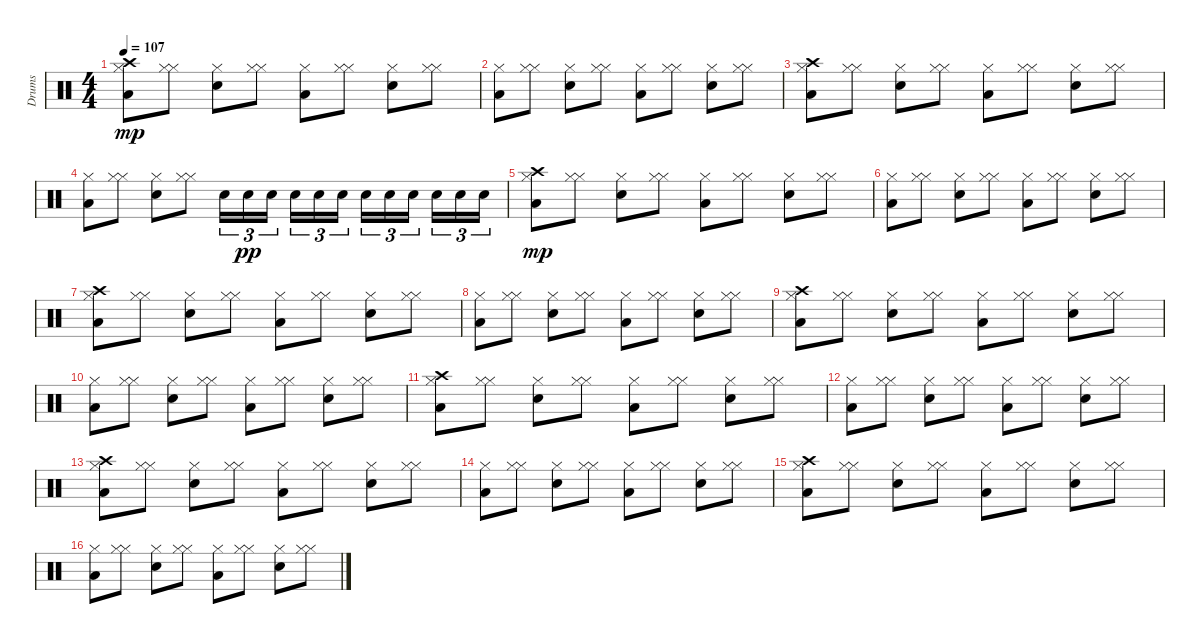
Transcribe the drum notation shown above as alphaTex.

\track ("Drums" "Drums") {instrument percussion}
\staff {score}
\articulation defaults
\ts (4 4)
\tempo 107
\clef neutral
\ks c
("Hi-Hat (closed)" "Crash high (hit)" "Low Tom (hit)").8{dy mp} ("Hi-Hat (closed)" "Hi-Hat (closed)").8 ("Hi-Hat (closed)" "Snare (hit) 2").8 ("Hi-Hat (closed)" "Hi-Hat (closed)").8 ("Hi-Hat (closed)" "Low Tom (hit)").8 ("Hi-Hat (closed)" "Hi-Hat (closed)").8 ("Hi-Hat (closed)" "Snare (hit) 2").8 ("Hi-Hat (closed)" "Hi-Hat (closed)").8 |
("Hi-Hat (closed)" "Low Tom (hit)").8 ("Hi-Hat (closed)" "Hi-Hat (closed)").8 ("Hi-Hat (closed)" "Snare (hit) 2").8 ("Hi-Hat (closed)" "Hi-Hat (closed)").8 ("Hi-Hat (closed)" "Low Tom (hit)").8 ("Hi-Hat (closed)" "Hi-Hat (closed)").8 ("Hi-Hat (closed)" "Snare (hit) 2").8 ("Hi-Hat (closed)" "Hi-Hat (closed)").8 |
("Hi-Hat (closed)" "Crash high (hit)" "Low Tom (hit)").8 ("Hi-Hat (closed)" "Hi-Hat (closed)").8 ("Hi-Hat (closed)" "Snare (hit) 2").8 ("Hi-Hat (closed)" "Hi-Hat (closed)").8 ("Hi-Hat (closed)" "Low Tom (hit)").8 ("Hi-Hat (closed)" "Hi-Hat (closed)").8 ("Hi-Hat (closed)" "Snare (hit) 2").8 ("Hi-Hat (closed)" "Hi-Hat (closed)").8 |
("Hi-Hat (closed)" "Low Tom (hit)").8 ("Hi-Hat (closed)" "Hi-Hat (closed)").8 ("Hi-Hat (closed)" "Snare (hit) 2").8 ("Hi-Hat (closed)" "Hi-Hat (closed)").8 "Snare (hit) 2".16{tu (3 2)} "Snare (hit) 2".16{tu (3 2) dy pp} "Snare (hit) 2".16{tu (3 2) beam splitsecondary} "Snare (hit) 2".16{tu (3 2)} "Snare (hit) 2".16{tu (3 2)} "Snare (hit) 2".16{tu (3 2)} "Snare (hit) 2".16{tu (3 2)} "Snare (hit) 2".16{tu (3 2)} "Snare (hit) 2".16{tu (3 2) beam splitsecondary} "Snare (hit) 2".16{tu (3 2)} "Snare (hit) 2".16{tu (3 2)} "Snare (hit) 2".16{tu (3 2)} |
("Hi-Hat (closed)" "Crash high (hit)" "Low Tom (hit)").8{dy mp} ("Hi-Hat (closed)" "Hi-Hat (closed)").8 ("Hi-Hat (closed)" "Snare (hit) 2").8 ("Hi-Hat (closed)" "Hi-Hat (closed)").8 ("Hi-Hat (closed)" "Low Tom (hit)").8 ("Hi-Hat (closed)" "Hi-Hat (closed)").8 ("Hi-Hat (closed)" "Snare (hit) 2").8 ("Hi-Hat (closed)" "Hi-Hat (closed)").8 |
("Hi-Hat (closed)" "Low Tom (hit)").8 ("Hi-Hat (closed)" "Hi-Hat (closed)").8 ("Hi-Hat (closed)" "Snare (hit) 2").8 ("Hi-Hat (closed)" "Hi-Hat (closed)").8 ("Hi-Hat (closed)" "Low Tom (hit)").8 ("Hi-Hat (closed)" "Hi-Hat (closed)").8 ("Hi-Hat (closed)" "Snare (hit) 2").8 ("Hi-Hat (closed)" "Hi-Hat (closed)").8 |
("Hi-Hat (closed)" "Crash high (hit)" "Low Tom (hit)").8 ("Hi-Hat (closed)" "Hi-Hat (closed)").8 ("Hi-Hat (closed)" "Snare (hit) 2").8 ("Hi-Hat (closed)" "Hi-Hat (closed)").8 ("Hi-Hat (closed)" "Low Tom (hit)").8 ("Hi-Hat (closed)" "Hi-Hat (closed)").8 ("Hi-Hat (closed)" "Snare (hit) 2").8 ("Hi-Hat (closed)" "Hi-Hat (closed)").8 |
("Hi-Hat (closed)" "Low Tom (hit)").8 ("Hi-Hat (closed)" "Hi-Hat (closed)").8 ("Hi-Hat (closed)" "Snare (hit) 2").8 ("Hi-Hat (closed)" "Hi-Hat (closed)").8 ("Hi-Hat (closed)" "Low Tom (hit)").8 ("Hi-Hat (closed)" "Hi-Hat (closed)").8 ("Hi-Hat (closed)" "Snare (hit) 2").8 ("Hi-Hat (closed)" "Hi-Hat (closed)").8 |
("Hi-Hat (closed)" "Crash high (hit)" "Low Tom (hit)").8 ("Hi-Hat (closed)" "Hi-Hat (closed)").8 ("Hi-Hat (closed)" "Snare (hit) 2").8 ("Hi-Hat (closed)" "Hi-Hat (closed)").8 ("Hi-Hat (closed)" "Low Tom (hit)").8 ("Hi-Hat (closed)" "Hi-Hat (closed)").8 ("Hi-Hat (closed)" "Snare (hit) 2").8 ("Hi-Hat (closed)" "Hi-Hat (closed)").8 |
("Hi-Hat (closed)" "Low Tom (hit)").8 ("Hi-Hat (closed)" "Hi-Hat (closed)").8 ("Hi-Hat (closed)" "Snare (hit) 2").8 ("Hi-Hat (closed)" "Hi-Hat (closed)").8 ("Hi-Hat (closed)" "Low Tom (hit)").8 ("Hi-Hat (closed)" "Hi-Hat (closed)").8 ("Hi-Hat (closed)" "Snare (hit) 2").8 ("Hi-Hat (closed)" "Hi-Hat (closed)").8 |
("Hi-Hat (closed)" "Crash high (hit)" "Low Tom (hit)").8 ("Hi-Hat (closed)" "Hi-Hat (closed)").8 ("Hi-Hat (closed)" "Snare (hit) 2").8 ("Hi-Hat (closed)" "Hi-Hat (closed)").8 ("Hi-Hat (closed)" "Low Tom (hit)").8 ("Hi-Hat (closed)" "Hi-Hat (closed)").8 ("Hi-Hat (closed)" "Snare (hit) 2").8 ("Hi-Hat (closed)" "Hi-Hat (closed)").8 |
("Hi-Hat (closed)" "Low Tom (hit)").8 ("Hi-Hat (closed)" "Hi-Hat (closed)").8 ("Hi-Hat (closed)" "Snare (hit) 2").8 ("Hi-Hat (closed)" "Hi-Hat (closed)").8 ("Hi-Hat (closed)" "Low Tom (hit)").8 ("Hi-Hat (closed)" "Hi-Hat (closed)").8 ("Hi-Hat (closed)" "Snare (hit) 2").8 ("Hi-Hat (closed)" "Hi-Hat (closed)").8 |
("Hi-Hat (closed)" "Crash high (hit)" "Low Tom (hit)").8 ("Hi-Hat (closed)" "Hi-Hat (closed)").8 ("Hi-Hat (closed)" "Snare (hit) 2").8 ("Hi-Hat (closed)" "Hi-Hat (closed)").8 ("Hi-Hat (closed)" "Low Tom (hit)").8 ("Hi-Hat (closed)" "Hi-Hat (closed)").8 ("Hi-Hat (closed)" "Snare (hit) 2").8 ("Hi-Hat (closed)" "Hi-Hat (closed)").8 |
("Hi-Hat (closed)" "Low Tom (hit)").8 ("Hi-Hat (closed)" "Hi-Hat (closed)").8 ("Hi-Hat (closed)" "Snare (hit) 2").8 ("Hi-Hat (closed)" "Hi-Hat (closed)").8 ("Hi-Hat (closed)" "Low Tom (hit)").8 ("Hi-Hat (closed)" "Hi-Hat (closed)").8 ("Hi-Hat (closed)" "Snare (hit) 2").8 ("Hi-Hat (closed)" "Hi-Hat (closed)").8 |
("Hi-Hat (closed)" "Crash high (hit)" "Low Tom (hit)").8 ("Hi-Hat (closed)" "Hi-Hat (closed)").8 ("Hi-Hat (closed)" "Snare (hit) 2").8 ("Hi-Hat (closed)" "Hi-Hat (closed)").8 ("Hi-Hat (closed)" "Low Tom (hit)").8 ("Hi-Hat (closed)" "Hi-Hat (closed)").8 ("Hi-Hat (closed)" "Snare (hit) 2").8 ("Hi-Hat (closed)" "Hi-Hat (closed)").8 |
("Hi-Hat (closed)" "Low Tom (hit)").8 ("Hi-Hat (closed)" "Hi-Hat (closed)").8 ("Hi-Hat (closed)" "Snare (hit) 2").8 ("Hi-Hat (closed)" "Hi-Hat (closed)").8 ("Hi-Hat (closed)" "Low Tom (hit)").8 ("Hi-Hat (closed)" "Hi-Hat (closed)").8 ("Hi-Hat (closed)" "Snare (hit) 2").8 ("Hi-Hat (closed)" "Hi-Hat (closed)").8
